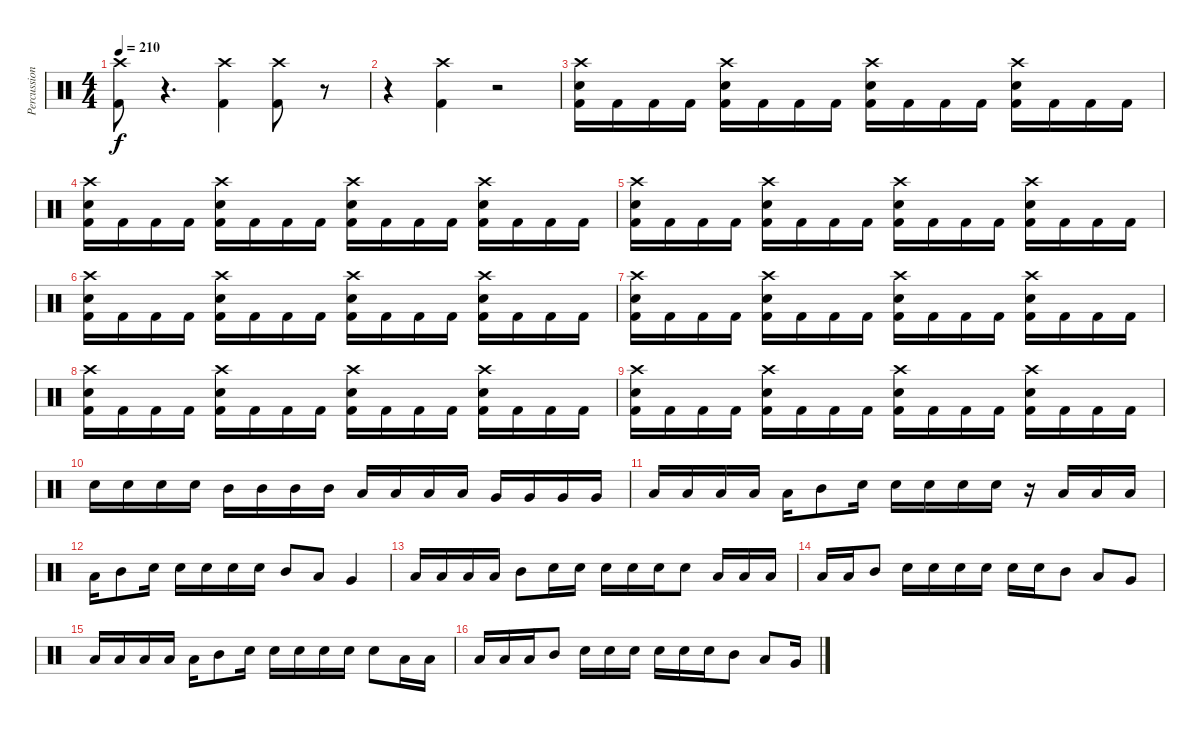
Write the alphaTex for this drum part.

\track ("Percussion" "Percussion") {instrument percussion}
\staff {score}
\articulation defaults
\ts (4 4)
\tempo 210
\clef neutral
\ks c
("Crash high (hit)" "Kick (hit) 2").8{dy f} r.4{d} ("Crash high (hit)" "Kick (hit) 2").4 ("Crash high (hit)" "Kick (hit) 2").8 r.8 |
r.4 ("Crash high (hit)" "Kick (hit) 2").4 r.2 |
("Crash high (hit)" "Electric Snare (hit)" "Kick (hit) 2").16 "Kick (hit) 2".16 "Kick (hit) 2".16 "Kick (hit) 2".16 ("Crash high (hit)" "Electric Snare (hit)" "Kick (hit) 2").16 "Kick (hit) 2".16 "Kick (hit) 2".16 "Kick (hit) 2".16 ("Crash high (hit)" "Electric Snare (hit)" "Kick (hit) 2").16 "Kick (hit) 2".16 "Kick (hit) 2".16 "Kick (hit) 2".16 ("Crash high (hit)" "Electric Snare (hit)" "Kick (hit) 2").16 "Kick (hit) 2".16 "Kick (hit) 2".16 "Kick (hit) 2".16 |
("Crash high (hit)" "Electric Snare (hit)" "Kick (hit) 2").16 "Kick (hit) 2".16 "Kick (hit) 2".16 "Kick (hit) 2".16 ("Crash high (hit)" "Electric Snare (hit)" "Kick (hit) 2").16 "Kick (hit) 2".16 "Kick (hit) 2".16 "Kick (hit) 2".16 ("Crash high (hit)" "Electric Snare (hit)" "Kick (hit) 2").16 "Kick (hit) 2".16 "Kick (hit) 2".16 "Kick (hit) 2".16 ("Crash high (hit)" "Electric Snare (hit)" "Kick (hit) 2").16 "Kick (hit) 2".16 "Kick (hit) 2".16 "Kick (hit) 2".16 |
("Crash high (hit)" "Electric Snare (hit)" "Kick (hit) 2").16 "Kick (hit) 2".16 "Kick (hit) 2".16 "Kick (hit) 2".16 ("Crash high (hit)" "Electric Snare (hit)" "Kick (hit) 2").16 "Kick (hit) 2".16 "Kick (hit) 2".16 "Kick (hit) 2".16 ("Crash high (hit)" "Electric Snare (hit)" "Kick (hit) 2").16 "Kick (hit) 2".16 "Kick (hit) 2".16 "Kick (hit) 2".16 ("Crash high (hit)" "Electric Snare (hit)" "Kick (hit) 2").16 "Kick (hit) 2".16 "Kick (hit) 2".16 "Kick (hit) 2".16 |
("Crash high (hit)" "Electric Snare (hit)" "Kick (hit) 2").16 "Kick (hit) 2".16 "Kick (hit) 2".16 "Kick (hit) 2".16 ("Crash high (hit)" "Electric Snare (hit)" "Kick (hit) 2").16 "Kick (hit) 2".16 "Kick (hit) 2".16 "Kick (hit) 2".16 ("Crash high (hit)" "Electric Snare (hit)" "Kick (hit) 2").16 "Kick (hit) 2".16 "Kick (hit) 2".16 "Kick (hit) 2".16 ("Crash high (hit)" "Electric Snare (hit)" "Kick (hit) 2").16 "Kick (hit) 2".16 "Kick (hit) 2".16 "Kick (hit) 2".16 |
("Crash high (hit)" "Electric Snare (hit)" "Kick (hit) 2").16 "Kick (hit) 2".16 "Kick (hit) 2".16 "Kick (hit) 2".16 ("Crash high (hit)" "Electric Snare (hit)" "Kick (hit) 2").16 "Kick (hit) 2".16 "Kick (hit) 2".16 "Kick (hit) 2".16 ("Crash high (hit)" "Electric Snare (hit)" "Kick (hit) 2").16 "Kick (hit) 2".16 "Kick (hit) 2".16 "Kick (hit) 2".16 ("Crash high (hit)" "Electric Snare (hit)" "Kick (hit) 2").16 "Kick (hit) 2".16 "Kick (hit) 2".16 "Kick (hit) 2".16 |
("Crash high (hit)" "Electric Snare (hit)" "Kick (hit) 2").16 "Kick (hit) 2".16 "Kick (hit) 2".16 "Kick (hit) 2".16 ("Crash high (hit)" "Electric Snare (hit)" "Kick (hit) 2").16 "Kick (hit) 2".16 "Kick (hit) 2".16 "Kick (hit) 2".16 ("Crash high (hit)" "Electric Snare (hit)" "Kick (hit) 2").16 "Kick (hit) 2".16 "Kick (hit) 2".16 "Kick (hit) 2".16 ("Crash high (hit)" "Electric Snare (hit)" "Kick (hit) 2").16 "Kick (hit) 2".16 "Kick (hit) 2".16 "Kick (hit) 2".16 |
("Crash high (hit)" "Electric Snare (hit)" "Kick (hit) 2").16 "Kick (hit) 2".16 "Kick (hit) 2".16 "Kick (hit) 2".16 ("Crash high (hit)" "Electric Snare (hit)" "Kick (hit) 2").16 "Kick (hit) 2".16 "Kick (hit) 2".16 "Kick (hit) 2".16 ("Crash high (hit)" "Electric Snare (hit)" "Kick (hit) 2").16 "Kick (hit) 2".16 "Kick (hit) 2".16 "Kick (hit) 2".16 ("Crash high (hit)" "Electric Snare (hit)" "Kick (hit) 2").16 "Kick (hit) 2".16 "Kick (hit) 2".16 "Kick (hit) 2".16 |
"Electric Snare (hit)".16 "Electric Snare (hit)".16 "Electric Snare (hit)".16 "Electric Snare (hit)".16 "Mid Tom (hit)".16 "Mid Tom (hit)".16 "Mid Tom (hit)".16 "Mid Tom (hit)".16 "Low Tom (hit)".16 "Low Tom (hit)".16 "Low Tom (hit)".16 "Low Tom (hit)".16 "Very Low Tom (hit)".16 "Very Low Tom (hit)".16 "Very Low Tom (hit)".16 "Very Low Tom (hit)".16 |
"Low Tom (hit)".16 "Low Tom (hit)".16 "Low Tom (hit)".16 "Low Tom (hit)".16 "Low Tom (hit)".16 "Mid Tom (hit)".8 "Electric Snare (hit)".16 "Electric Snare (hit)".16 "Electric Snare (hit)".16 "Electric Snare (hit)".16 "Electric Snare (hit)".16 r.16 "Low Tom (hit)".16 "Low Tom (hit)".16 "Low Tom (hit)".16 |
"Low Tom (hit)".16 "Mid Tom (hit)".8 "Electric Snare (hit)".16 "Electric Snare (hit)".16 "Electric Snare (hit)".16 "Electric Snare (hit)".16 "Electric Snare (hit)".16 "Mid Tom (hit)".8 "Low Tom (hit)".8 "Very Low Tom (hit)".4 |
"Low Tom (hit)".16 "Low Tom (hit)".16 "Low Tom (hit)".16 "Low Tom (hit)".16 "Mid Tom (hit)".8 "Electric Snare (hit)".16 "Electric Snare (hit)".16 "Electric Snare (hit)".16 "Electric Snare (hit)".16 "Electric Snare (hit)".16 "Electric Snare (hit)".8 "Low Tom (hit)".16 "Low Tom (hit)".16 "Low Tom (hit)".16 |
"Low Tom (hit)".16 "Low Tom (hit)".16 "Mid Tom (hit)".8 "Electric Snare (hit)".16 "Electric Snare (hit)".16 "Electric Snare (hit)".16 "Electric Snare (hit)".16 "Electric Snare (hit)".16 "Electric Snare (hit)".16 "Mid Tom (hit)".8 "Low Tom (hit)".8 "Very Low Tom (hit)".8 |
"Low Tom (hit)".16 "Low Tom (hit)".16 "Low Tom (hit)".16 "Low Tom (hit)".16 "Low Tom (hit)".16 "Mid Tom (hit)".8 "Electric Snare (hit)".16 "Electric Snare (hit)".16 "Electric Snare (hit)".16 "Electric Snare (hit)".16 "Electric Snare (hit)".16 "Electric Snare (hit)".8 "Low Tom (hit)".16 "Low Tom (hit)".16 |
"Low Tom (hit)".16 "Low Tom (hit)".16 "Low Tom (hit)".16 "Mid Tom (hit)".8 "Electric Snare (hit)".16 "Electric Snare (hit)".16 "Electric Snare (hit)".16 "Electric Snare (hit)".16 "Electric Snare (hit)".16 "Electric Snare (hit)".16 "Mid Tom (hit)".8 "Low Tom (hit)".8 "Very Low Tom (hit)".16
